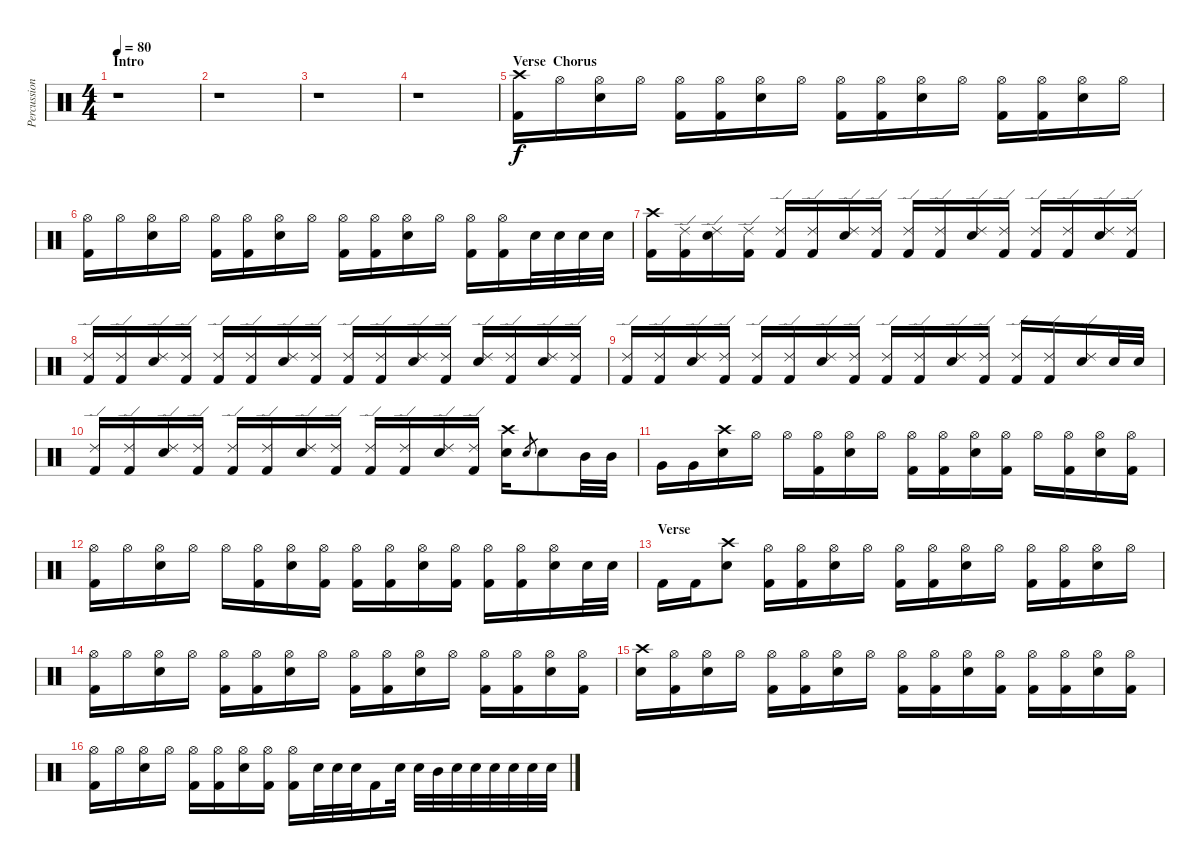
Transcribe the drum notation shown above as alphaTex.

\track ("Percussion" "Percussion") {instrument percussion}
\staff {score}
\articulation defaults
\ts (4 4)
\section ("" "Intro")
\tempo 80
\clef neutral
\ks c
r.1{dy f} |
r.1 |
r.1 |
r.1 |
\section ("" "Verse  Chorus")
("Crash high (hit)" "Kick (hit) 2").16 "Hi-Hat (open)".16 ("Hi-Hat (open)" "Electric Snare (hit)").16 "Hi-Hat (open)".16 ("Hi-Hat (open)" "Kick (hit) 2").16 ("Hi-Hat (open)" "Kick (hit) 2").16 ("Hi-Hat (open)" "Electric Snare (hit)").16 "Hi-Hat (open)".16 ("Hi-Hat (open)" "Kick (hit) 2").16 ("Hi-Hat (open)" "Kick (hit) 2").16 ("Hi-Hat (open)" "Electric Snare (hit)").16 "Hi-Hat (open)".16 ("Hi-Hat (open)" "Kick (hit) 2").16 ("Hi-Hat (open)" "Kick (hit) 2").16 ("Hi-Hat (open)" "Electric Snare (hit)").16 "Hi-Hat (open)".16 |
("Hi-Hat (open)" "Kick (hit) 2").16 "Hi-Hat (open)".16 ("Hi-Hat (open)" "Electric Snare (hit)").16 "Hi-Hat (open)".16 ("Hi-Hat (open)" "Kick (hit) 2").16 ("Hi-Hat (open)" "Kick (hit) 2").16 ("Hi-Hat (open)" "Electric Snare (hit)").16 "Hi-Hat (open)".16 ("Hi-Hat (open)" "Kick (hit) 2").16 ("Hi-Hat (open)" "Kick (hit) 2").16 ("Hi-Hat (open)" "Electric Snare (hit)").16 "Hi-Hat (open)".16 ("Hi-Hat (open)" "Kick (hit) 2").16 ("Hi-Hat (open)" "Kick (hit) 2").16 "Electric Snare (hit)".32 "Electric Snare (hit)".32 "Electric Snare (hit)".32 "Electric Snare (hit)".32 |
("Crash high (hit)" "Kick (hit) 2").16 ("Ride (edge) 2" "Kick (hit) 2").16 ("Ride (edge) 2" "Electric Snare (hit)").16 ("Ride (edge) 2" "Kick (hit) 2").16 ("Ride (edge) 2" "Kick (hit) 2").16 ("Ride (edge) 2" "Kick (hit) 2").16 ("Ride (edge) 2" "Electric Snare (hit)").16 ("Ride (edge) 2" "Kick (hit) 2").16 ("Ride (edge) 2" "Kick (hit) 2").16 ("Ride (edge) 2" "Kick (hit) 2").16 ("Ride (edge) 2" "Electric Snare (hit)").16 ("Ride (edge) 2" "Kick (hit) 2").16 ("Ride (edge) 2" "Kick (hit) 2").16 ("Ride (edge) 2" "Kick (hit) 2").16 ("Ride (edge) 2" "Electric Snare (hit)").16 ("Ride (edge) 2" "Kick (hit) 2").16 |
("Ride (edge) 2" "Kick (hit) 2").16 ("Ride (edge) 2" "Kick (hit) 2").16 ("Ride (edge) 2" "Electric Snare (hit)").16 ("Ride (edge) 2" "Kick (hit) 2").16 ("Ride (edge) 2" "Kick (hit) 2").16 ("Ride (edge) 2" "Kick (hit) 2").16 ("Ride (edge) 2" "Electric Snare (hit)").16 ("Ride (edge) 2" "Kick (hit) 2").16 ("Ride (edge) 2" "Kick (hit) 2").16 ("Ride (edge) 2" "Kick (hit) 2").16 ("Ride (edge) 2" "Electric Snare (hit)").16 ("Ride (edge) 2" "Kick (hit) 2").16 ("Ride (edge) 2" "Electric Snare (hit)").16 ("Ride (edge) 2" "Kick (hit) 2").16 ("Ride (edge) 2" "Electric Snare (hit)").16 ("Ride (edge) 2" "Kick (hit) 2").16 |
("Ride (edge) 2" "Kick (hit) 2").16 ("Ride (edge) 2" "Kick (hit) 2").16 ("Ride (edge) 2" "Electric Snare (hit)").16 ("Ride (edge) 2" "Kick (hit) 2").16 ("Ride (edge) 2" "Kick (hit) 2").16 ("Ride (edge) 2" "Kick (hit) 2").16 ("Ride (edge) 2" "Electric Snare (hit)").16 ("Ride (edge) 2" "Kick (hit) 2").16 ("Ride (edge) 2" "Kick (hit) 2").16 ("Ride (edge) 2" "Kick (hit) 2").16 ("Ride (edge) 2" "Electric Snare (hit)").16 ("Ride (edge) 2" "Kick (hit) 2").16 ("Ride (edge) 2" "Kick (hit) 2").16 ("Ride (edge) 2" "Kick (hit) 2").16 ("Ride (edge) 2" "Electric Snare (hit)").16 "Electric Snare (hit)".32 "Electric Snare (hit)".32 |
("Ride (edge) 2" "Kick (hit) 2").16 ("Ride (edge) 2" "Kick (hit) 2").16 ("Ride (edge) 2" "Electric Snare (hit)").16 ("Ride (edge) 2" "Kick (hit) 2").16 ("Ride (edge) 2" "Kick (hit) 2").16 ("Ride (edge) 2" "Kick (hit) 2").16 ("Ride (edge) 2" "Electric Snare (hit)").16 ("Ride (edge) 2" "Kick (hit) 2").16 ("Ride (edge) 2" "Kick (hit) 2").16 ("Ride (edge) 2" "Kick (hit) 2").16 ("Ride (edge) 2" "Electric Snare (hit)").16 ("Ride (edge) 2" "Kick (hit) 2").16 ("Crash high (hit)" "Electric Snare (hit)").16 "Electric Snare (hit)"{h}.8{gr} "Electric Snare (hit)".8 "Mid Tom (hit)".32 "Mid Tom (hit)".32 |
"Very Low Tom (hit)".16 "Very Low Tom (hit)".16 ("Crash high (hit)" "Electric Snare (hit)").16 "Hi-Hat (open)".16 "Hi-Hat (open)".16 ("Hi-Hat (open)" "Kick (hit) 2").16 ("Hi-Hat (open)" "Electric Snare (hit)").16 "Hi-Hat (open)".16 ("Hi-Hat (open)" "Kick (hit) 2").16 ("Hi-Hat (open)" "Kick (hit) 2").16 ("Hi-Hat (open)" "Electric Snare (hit)").16 ("Hi-Hat (open)" "Kick (hit) 2").16 "Hi-Hat (open)".16 ("Hi-Hat (open)" "Kick (hit) 2").16 ("Hi-Hat (open)" "Electric Snare (hit)").16 ("Hi-Hat (open)" "Kick (hit) 2").16 |
("Hi-Hat (open)" "Kick (hit) 2").16 "Hi-Hat (open)".16 ("Hi-Hat (open)" "Electric Snare (hit)").16 "Hi-Hat (open)".16 "Hi-Hat (open)".16 ("Hi-Hat (open)" "Kick (hit) 2").16 ("Hi-Hat (open)" "Electric Snare (hit)").16 ("Hi-Hat (open)" "Kick (hit) 2").16 ("Hi-Hat (open)" "Kick (hit) 2").16 ("Hi-Hat (open)" "Kick (hit) 2").16 ("Hi-Hat (open)" "Electric Snare (hit)").16 ("Hi-Hat (open)" "Kick (hit) 2").16 ("Hi-Hat (open)" "Kick (hit) 2").16 ("Hi-Hat (open)" "Kick (hit) 2").16 ("Hi-Hat (open)" "Electric Snare (hit)").16 "Electric Snare (hit)".32 "Electric Snare (hit)".32 |
\section ("" "Verse")
"Kick (hit) 2".16 "Kick (hit) 2".16 ("Crash high (hit)" "Electric Snare (hit)").8 ("Hi-Hat (open)" "Kick (hit) 2").16 ("Hi-Hat (open)" "Kick (hit) 2").16 ("Hi-Hat (open)" "Electric Snare (hit)").16 "Hi-Hat (open)".16 ("Hi-Hat (open)" "Kick (hit) 2").16 ("Hi-Hat (open)" "Kick (hit) 2").16 ("Hi-Hat (open)" "Electric Snare (hit)").16 "Hi-Hat (open)".16 ("Hi-Hat (open)" "Kick (hit) 2").16 ("Hi-Hat (open)" "Kick (hit) 2").16 ("Hi-Hat (open)" "Electric Snare (hit)").16 "Hi-Hat (open)".16 |
("Hi-Hat (open)" "Kick (hit) 2").16 "Hi-Hat (open)".16 ("Hi-Hat (open)" "Electric Snare (hit)").16 "Hi-Hat (open)".16 ("Hi-Hat (open)" "Kick (hit) 2").16 ("Hi-Hat (open)" "Kick (hit) 2").16 ("Hi-Hat (open)" "Electric Snare (hit)").16 "Hi-Hat (open)".16 ("Hi-Hat (open)" "Kick (hit) 2").16 ("Hi-Hat (open)" "Kick (hit) 2").16 ("Hi-Hat (open)" "Electric Snare (hit)").16 "Hi-Hat (open)".16 ("Hi-Hat (open)" "Kick (hit) 2").16 ("Hi-Hat (open)" "Kick (hit) 2").16 ("Hi-Hat (open)" "Electric Snare (hit)").16 ("Hi-Hat (open)" "Kick (hit) 2").16 |
("Crash high (hit)" "Electric Snare (hit)").16 ("Hi-Hat (open)" "Kick (hit) 2").16 ("Hi-Hat (open)" "Electric Snare (hit)").16 "Hi-Hat (open)".16 ("Hi-Hat (open)" "Kick (hit) 2").16 ("Hi-Hat (open)" "Kick (hit) 2").16 ("Hi-Hat (open)" "Electric Snare (hit)").16 "Hi-Hat (open)".16 ("Hi-Hat (open)" "Kick (hit) 2").16 ("Hi-Hat (open)" "Kick (hit) 2").16 ("Hi-Hat (open)" "Electric Snare (hit)").16 ("Hi-Hat (open)" "Kick (hit) 2").16 ("Hi-Hat (open)" "Kick (hit) 2").16 ("Hi-Hat (open)" "Kick (hit) 2").16 ("Hi-Hat (open)" "Electric Snare (hit)").16 ("Hi-Hat (open)" "Kick (hit) 2").16 |
("Hi-Hat (open)" "Kick (hit) 2").16 "Hi-Hat (open)".16 ("Hi-Hat (open)" "Electric Snare (hit)").16 "Hi-Hat (open)".16 ("Hi-Hat (open)" "Kick (hit) 2").16 ("Hi-Hat (open)" "Kick (hit) 2").16 ("Hi-Hat (open)" "Electric Snare (hit)").16 ("Hi-Hat (open)" "Kick (hit) 2").16 ("Hi-Hat (open)" "Kick (hit) 2").16 "Electric Snare (hit)".32 "Electric Snare (hit)".32 "Electric Snare (hit)".32 "Kick (hit) 2".16 "Electric Snare (hit)".32 "Electric Snare (hit)".32 "Mid Tom (hit)".32 "Electric Snare (hit)".32 "Electric Snare (hit)".32 "Electric Snare (hit)".32 "Electric Snare (hit)".32 "Electric Snare (hit)".32 "Electric Snare (hit)".32
